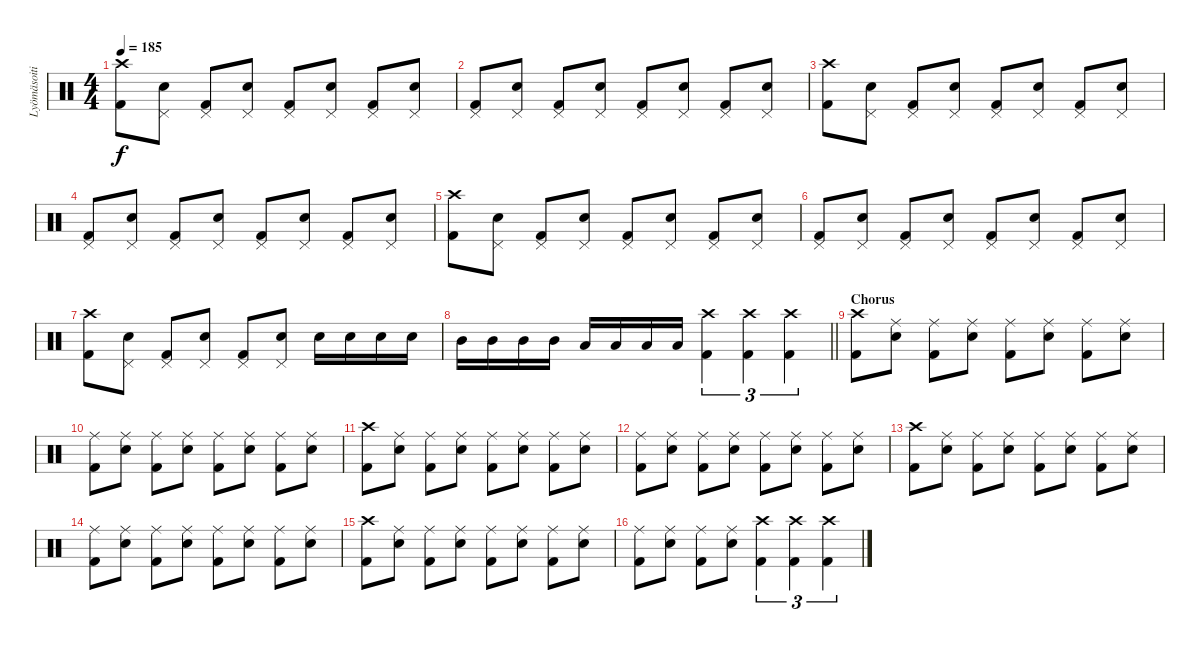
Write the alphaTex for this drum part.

\track ("Lyömäsoitin" "Lyömäsoiti") {instrument percussion}
\staff {score}
\articulation defaults
\ts (4 4)
\tempo 185
\clef neutral
\ks c
("Crash high (hit)" "Kick (hit) 2").8{dy f} ("Pedal Hi-Hat (hit)" "Electric Snare (hit)").8 ("Pedal Hi-Hat (hit)" "Kick (hit) 2").8 ("Pedal Hi-Hat (hit)" "Electric Snare (hit)").8 ("Pedal Hi-Hat (hit)" "Kick (hit) 2").8 ("Pedal Hi-Hat (hit)" "Electric Snare (hit)").8 ("Pedal Hi-Hat (hit)" "Kick (hit) 2").8 ("Pedal Hi-Hat (hit)" "Electric Snare (hit)").8 |
("Pedal Hi-Hat (hit)" "Kick (hit) 2").8 ("Pedal Hi-Hat (hit)" "Electric Snare (hit)").8 ("Pedal Hi-Hat (hit)" "Kick (hit) 2").8 ("Pedal Hi-Hat (hit)" "Electric Snare (hit)").8 ("Pedal Hi-Hat (hit)" "Kick (hit) 2").8 ("Pedal Hi-Hat (hit)" "Electric Snare (hit)").8 ("Pedal Hi-Hat (hit)" "Kick (hit) 2").8 ("Pedal Hi-Hat (hit)" "Electric Snare (hit)").8 |
("Crash high (hit)" "Kick (hit) 2").8 ("Pedal Hi-Hat (hit)" "Electric Snare (hit)").8 ("Pedal Hi-Hat (hit)" "Kick (hit) 2").8 ("Pedal Hi-Hat (hit)" "Electric Snare (hit)").8 ("Pedal Hi-Hat (hit)" "Kick (hit) 2").8 ("Pedal Hi-Hat (hit)" "Electric Snare (hit)").8 ("Pedal Hi-Hat (hit)" "Kick (hit) 2").8 ("Pedal Hi-Hat (hit)" "Electric Snare (hit)").8 |
("Pedal Hi-Hat (hit)" "Kick (hit) 2").8 ("Pedal Hi-Hat (hit)" "Electric Snare (hit)").8 ("Pedal Hi-Hat (hit)" "Kick (hit) 2").8 ("Pedal Hi-Hat (hit)" "Electric Snare (hit)").8 ("Pedal Hi-Hat (hit)" "Kick (hit) 2").8 ("Pedal Hi-Hat (hit)" "Electric Snare (hit)").8 ("Pedal Hi-Hat (hit)" "Kick (hit) 2").8 ("Pedal Hi-Hat (hit)" "Electric Snare (hit)").8 |
("Crash high (hit)" "Kick (hit) 2").8 ("Pedal Hi-Hat (hit)" "Electric Snare (hit)").8 ("Pedal Hi-Hat (hit)" "Kick (hit) 2").8 ("Pedal Hi-Hat (hit)" "Electric Snare (hit)").8 ("Pedal Hi-Hat (hit)" "Kick (hit) 2").8 ("Pedal Hi-Hat (hit)" "Electric Snare (hit)").8 ("Pedal Hi-Hat (hit)" "Kick (hit) 2").8 ("Pedal Hi-Hat (hit)" "Electric Snare (hit)").8 |
("Pedal Hi-Hat (hit)" "Kick (hit) 2").8 ("Pedal Hi-Hat (hit)" "Electric Snare (hit)").8 ("Pedal Hi-Hat (hit)" "Kick (hit) 2").8 ("Pedal Hi-Hat (hit)" "Electric Snare (hit)").8 ("Pedal Hi-Hat (hit)" "Kick (hit) 2").8 ("Pedal Hi-Hat (hit)" "Electric Snare (hit)").8 ("Pedal Hi-Hat (hit)" "Kick (hit) 2").8 ("Pedal Hi-Hat (hit)" "Electric Snare (hit)").8 |
("Crash high (hit)" "Kick (hit) 2").8 ("Pedal Hi-Hat (hit)" "Electric Snare (hit)").8 ("Pedal Hi-Hat (hit)" "Kick (hit) 2").8 ("Pedal Hi-Hat (hit)" "Electric Snare (hit)").8 ("Pedal Hi-Hat (hit)" "Kick (hit) 2").8 ("Pedal Hi-Hat (hit)" "Electric Snare (hit)").8 "Electric Snare (hit)".16 "Electric Snare (hit)".16 "Electric Snare (hit)".16 "Electric Snare (hit)".16 |
\barLineRight lightlight "Mid Tom (hit)".16 "Mid Tom (hit)".16 "Mid Tom (hit)".16 "Mid Tom (hit)".16 "Low Tom (hit)".16 "Low Tom (hit)".16 "Low Tom (hit)".16 "Low Tom (hit)".16
("Crash high (hit)" "Kick (hit) 2").4{tu (3 2)} ("Crash high (hit)" "Kick (hit) 2").4{tu (3 2)} ("Crash high (hit)" "Kick (hit) 2").4{tu (3 2)} |
\section ("" "Chorus")
("Crash high (hit)" "Kick (hit) 2").8 ("Ride (middle)" "Electric Snare (hit)").8 ("Ride (middle)" "Kick (hit) 2").8 ("Ride (middle)" "Electric Snare (hit)").8 ("Ride (middle)" "Kick (hit) 2").8 ("Ride (middle)" "Electric Snare (hit)").8 ("Ride (middle)" "Kick (hit) 2").8 ("Ride (middle)" "Electric Snare (hit)").8 |
("Ride (middle)" "Kick (hit) 2").8 ("Ride (middle)" "Electric Snare (hit)").8 ("Ride (middle)" "Kick (hit) 2").8 ("Ride (middle)" "Electric Snare (hit)").8 ("Ride (middle)" "Kick (hit) 2").8 ("Ride (middle)" "Electric Snare (hit)").8 ("Ride (middle)" "Kick (hit) 2").8 ("Ride (middle)" "Electric Snare (hit)").8 |
("Crash high (hit)" "Kick (hit) 2").8 ("Ride (middle)" "Electric Snare (hit)").8 ("Ride (middle)" "Kick (hit) 2").8 ("Ride (middle)" "Electric Snare (hit)").8 ("Ride (middle)" "Kick (hit) 2").8 ("Ride (middle)" "Electric Snare (hit)").8 ("Ride (middle)" "Kick (hit) 2").8 ("Ride (middle)" "Electric Snare (hit)").8 |
("Ride (middle)" "Kick (hit) 2").8 ("Ride (middle)" "Electric Snare (hit)").8 ("Ride (middle)" "Kick (hit) 2").8 ("Ride (middle)" "Electric Snare (hit)").8 ("Ride (middle)" "Kick (hit) 2").8 ("Ride (middle)" "Electric Snare (hit)").8 ("Ride (middle)" "Kick (hit) 2").8 ("Ride (middle)" "Electric Snare (hit)").8 |
("Crash high (hit)" "Kick (hit) 2").8 ("Ride (middle)" "Electric Snare (hit)").8 ("Ride (middle)" "Kick (hit) 2").8 ("Ride (middle)" "Electric Snare (hit)").8 ("Ride (middle)" "Kick (hit) 2").8 ("Ride (middle)" "Electric Snare (hit)").8 ("Ride (middle)" "Kick (hit) 2").8 ("Ride (middle)" "Electric Snare (hit)").8 |
("Ride (middle)" "Kick (hit) 2").8 ("Ride (middle)" "Electric Snare (hit)").8 ("Ride (middle)" "Kick (hit) 2").8 ("Ride (middle)" "Electric Snare (hit)").8 ("Ride (middle)" "Kick (hit) 2").8 ("Ride (middle)" "Electric Snare (hit)").8 ("Ride (middle)" "Kick (hit) 2").8 ("Ride (middle)" "Electric Snare (hit)").8 |
("Crash high (hit)" "Kick (hit) 2").8 ("Ride (middle)" "Electric Snare (hit)").8 ("Ride (middle)" "Kick (hit) 2").8 ("Ride (middle)" "Electric Snare (hit)").8 ("Ride (middle)" "Kick (hit) 2").8 ("Ride (middle)" "Electric Snare (hit)").8 ("Ride (middle)" "Kick (hit) 2").8 ("Ride (middle)" "Electric Snare (hit)").8 |
("Ride (middle)" "Kick (hit) 2").8 ("Ride (middle)" "Electric Snare (hit)").8 ("Ride (middle)" "Kick (hit) 2").8 ("Ride (middle)" "Electric Snare (hit)").8 ("Crash high (hit)" "Kick (hit) 2").4{tu (3 2)} ("Crash high (hit)" "Kick (hit) 2").4{tu (3 2)} ("Crash high (hit)" "Kick (hit) 2").4{tu (3 2)}
